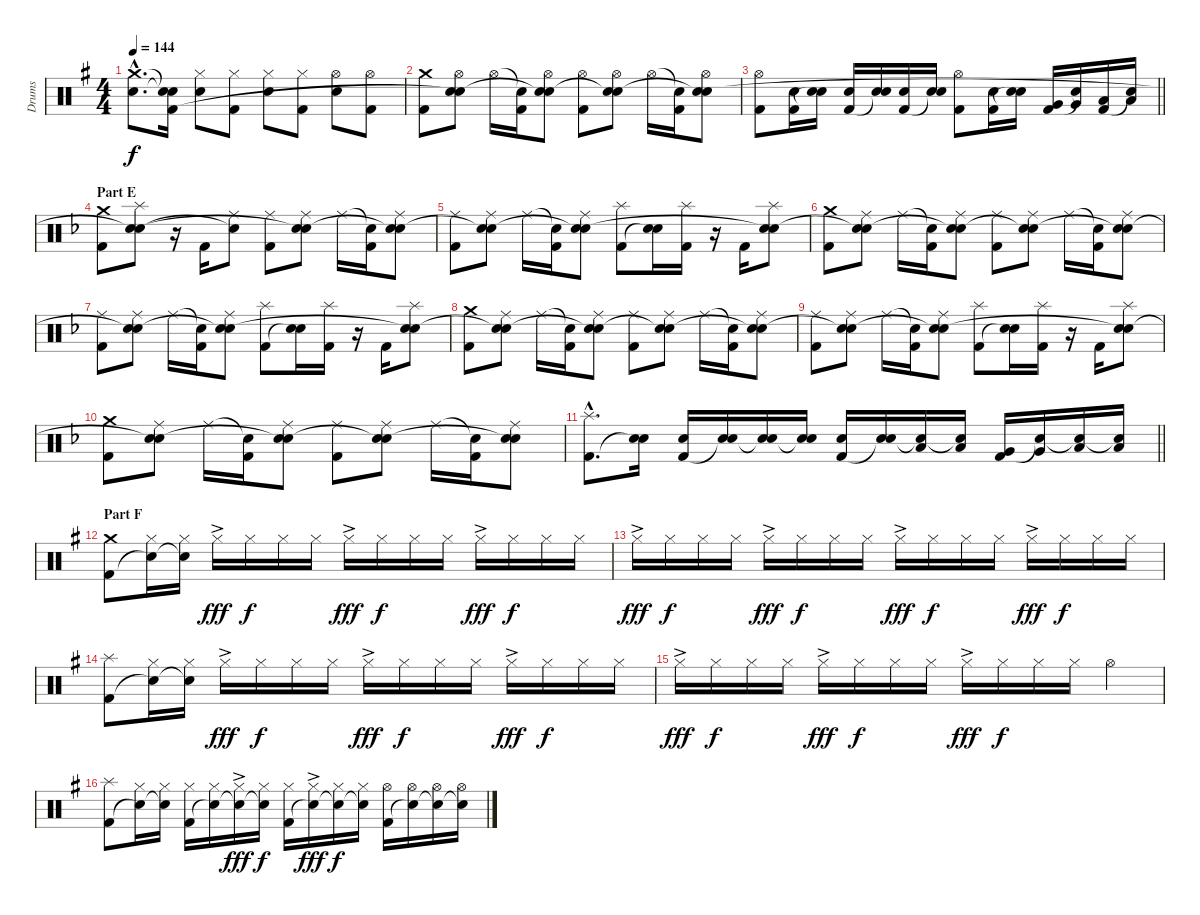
\track ("Drums" "Drums") {instrument percussion}
\staff {score}
\articulation defaults
\ts (4 4)
\tempo 144
\clef neutral
\ks g
("Crash medium (hit)"{hac} "Electric Snare (hit)"{hac}).8{d dy f} ("Snare (hit)"{t} "Snare (hit)"{t} "Kick (hit) 2").16 ("Hi-Hat (closed)" "Electric Snare (hit)").8 ("Hi-Hat (closed)" "Kick (hit) 2").8 ("Hi-Hat (closed)" "Electric Snare (hit)").8 ("Hi-Hat (closed)" "Kick (hit) 2").8 ("Hi-Hat (open)" "Electric Snare (hit)").8 ("Hi-Hat (open)" "Kick (hit) 2").8 |
("Crash medium (hit)" "Kick (hit) 2").8 ("Hi-Hat (open)" "Electric Snare (hit)" "Snare (hit)"{t}).8 "Hi-Hat (open)".16 ("Snare (hit)"{t} "Kick (hit) 2").16 ("Hi-Hat (open)" "Electric Snare (hit)" "Snare (hit)"{t}).8 ("Hi-Hat (open)" "Kick (hit) 2").8 ("Hi-Hat (open)" "Electric Snare (hit)" "Snare (hit)"{t}).8 "Hi-Hat (open)".16 ("Snare (hit)"{t} "Kick (hit) 2").16 ("Hi-Hat (open)" "Electric Snare (hit)" "Snare (hit)"{t}).8 |
\barLineRight lightlight
("Hi-Hat (open)" "Kick (hit) 2").8 ("Electric Snare (hit)" "Kick (hit) 2").16 ("Electric Snare (hit)" "Snare (hit)"{t}).16 ("Electric Snare (hit)" "Kick (hit) 2").16 ("Electric Snare (hit)" "Snare (hit)"{t}).16 ("Electric Snare (hit)" "Kick (hit) 2").16 ("Electric Snare (hit)" "Snare (hit)"{t}).16 ("Hi-Hat (open)" "Kick (hit) 2").8 ("Electric Snare (hit)" "Kick (hit) 2").16 ("Electric Snare (hit)" "Snare (hit)"{t}).16 ("Very Low Tom (hit)" "Kick (hit) 2").16 ("Very Low Tom (hit)" "Snare (hit)"{t}).16 ("Low Floor Tom (hit)" "Kick (hit) 2").16 ("Low Floor Tom (hit)" "Snare (hit)"{t}).16 |
\section ("" "Part E")
\ks f
("Crash medium (hit)" "Kick (hit) 2").8 ("Splash (hit)" "Electric Snare (hit)" "Snare (hit)"{t}).8 r.16 "Kick (hit) 2".16 ("Ride (middle)" "Snare (hit)"{t}).8 ("Ride (middle)" "Kick (hit) 2").8 ("Ride (middle)" "Electric Snare (hit)" "Snare (hit)"{t}).8 "Ride (middle)".16 ("Snare (hit)"{t} "Kick (hit) 2").16 ("Ride (middle)" "Electric Snare (hit)" "Snare (hit)"{t}).8 |
("Ride (middle)" "Kick (hit) 2").8 ("Ride (middle)" "Electric Snare (hit)" "Snare (hit)"{t}).8 "Ride (middle)".16 ("Snare (hit)"{t} "Kick (hit) 2").16 ("Ride (middle)" "Electric Snare (hit)" "Snare (hit)"{t}).8 ("Splash (hit)" "Kick (hit) 2").8 ("Electric Snare (hit)" "Snare (hit)"{t}).16 ("Splash (hit)" "Kick (hit) 2").16 r.16 "Kick (hit) 2".16 ("Splash (hit)" "Electric Snare (hit)" "Snare (hit)"{t}).8 |
("Crash medium (hit)" "Kick (hit) 2").8 ("Ride (middle)" "Electric Snare (hit)" "Snare (hit)"{t}).8 "Ride (middle)".16 ("Snare (hit)"{t} "Kick (hit) 2").16 ("Ride (middle)" "Electric Snare (hit)" "Snare (hit)"{t}).8 ("Ride (middle)" "Kick (hit) 2").8 ("Ride (middle)" "Electric Snare (hit)" "Snare (hit)"{t}).8 "Ride (middle)".16 ("Snare (hit)"{t} "Kick (hit) 2").16 ("Ride (middle)" "Electric Snare (hit)" "Snare (hit)"{t}).8 |
("Ride (middle)" "Kick (hit) 2").8 ("Ride (middle)" "Electric Snare (hit)" "Snare (hit)"{t}).8 "Ride (middle)".16 ("Snare (hit)"{t} "Kick (hit) 2").16 ("Ride (middle)" "Electric Snare (hit)" "Snare (hit)"{t}).8 ("Splash (hit)" "Kick (hit) 2").8 ("Electric Snare (hit)" "Snare (hit)"{t}).16 ("Splash (hit)" "Kick (hit) 2").16 r.16 "Kick (hit) 2".16 ("Splash (hit)" "Electric Snare (hit)" "Snare (hit)"{t}).8 |
("Crash medium (hit)" "Kick (hit) 2").8 ("Ride (middle)" "Electric Snare (hit)" "Snare (hit)"{t}).8 "Ride (middle)".16 ("Snare (hit)"{t} "Kick (hit) 2").16 ("Ride (middle)" "Electric Snare (hit)" "Snare (hit)"{t}).8 ("Ride (middle)" "Kick (hit) 2").8 ("Ride (middle)" "Electric Snare (hit)" "Snare (hit)"{t}).8 "Ride (middle)".16 ("Snare (hit)"{t} "Kick (hit) 2").16 ("Ride (middle)" "Electric Snare (hit)" "Snare (hit)"{t}).8 |
("Ride (middle)" "Kick (hit) 2").8 ("Ride (middle)" "Electric Snare (hit)" "Snare (hit)"{t}).8 "Ride (middle)".16 ("Snare (hit)"{t} "Kick (hit) 2").16 ("Ride (middle)" "Electric Snare (hit)" "Snare (hit)"{t}).8 ("Splash (hit)" "Kick (hit) 2").8 ("Electric Snare (hit)" "Snare (hit)"{t}).16 ("Splash (hit)" "Kick (hit) 2").16 r.16 "Kick (hit) 2".16 ("Splash (hit)" "Electric Snare (hit)" "Snare (hit)"{t}).8 |
("Crash medium (hit)" "Kick (hit) 2").8 ("Ride (middle)" "Electric Snare (hit)" "Snare (hit)"{t}).8 "Ride (middle)".16 ("Snare (hit)"{t} "Kick (hit) 2").16 ("Ride (middle)" "Electric Snare (hit)" "Snare (hit)"{t}).8 ("Ride (middle)" "Kick (hit) 2").8 ("Ride (middle)" "Electric Snare (hit)" "Snare (hit)"{t}).8 "Ride (middle)".16 ("Snare (hit)"{t} "Kick (hit) 2").16 ("Ride (middle)" "Electric Snare (hit)" "Snare (hit)"{t}).8 |
\barLineRight lightlight
("Splash (hit)"{hac} "Kick (hit) 2"{hac}).8{d} ("Electric Snare (hit)" "Snare (hit)"{t}).16 ("Electric Snare (hit)" "Kick (hit) 2").16 ("Electric Snare (hit)" "Snare (hit)"{t}).16 ("Electric Snare (hit)" "Snare (hit)"{t}).16 ("Electric Snare (hit)" "Snare (hit)"{t}).16 ("Electric Snare (hit)" "Kick (hit) 2").16 ("Electric Snare (hit)" "Snare (hit)"{t}).16 ("Low Tom (hit)" "Snare (hit)"{t}).16 ("Low Tom (hit)" "Snare (hit)"{t}).16 ("Very Low Tom (hit)" "Kick (hit) 2").16 ("Very Low Tom (hit)" "Snare (hit)"{t}).16 ("Low Floor Tom (hit)" "Snare (hit)"{t}).16 ("Low Floor Tom (hit)" "Snare (hit)"{t}).16 |
\section ("" "Part F")
\ks g
("Crash medium (hit)" "Kick (hit) 2").8 ("Hi-Hat (closed)" "Snare (hit)"{t}).16 ("Hi-Hat (closed)" "Snare (hit)"{t}).16 "Hi-Hat (closed)"{ac}.16{dy fff} "Hi-Hat (closed)".16{dy f} "Hi-Hat (closed)".16 "Hi-Hat (closed)".16 "Hi-Hat (closed)"{ac}.16{dy fff} "Hi-Hat (closed)".16{dy f} "Hi-Hat (closed)".16 "Hi-Hat (closed)".16 "Hi-Hat (closed)"{ac}.16{dy fff} "Hi-Hat (closed)".16{dy f} "Hi-Hat (closed)".16 "Hi-Hat (closed)".16 |
"Hi-Hat (closed)"{ac}.16{dy fff} "Hi-Hat (closed)".16{dy f} "Hi-Hat (closed)".16 "Hi-Hat (closed)".16 "Hi-Hat (closed)"{ac}.16{dy fff} "Hi-Hat (closed)".16{dy f} "Hi-Hat (closed)".16 "Hi-Hat (closed)".16 "Hi-Hat (closed)"{ac}.16{dy fff} "Hi-Hat (closed)".16{dy f} "Hi-Hat (closed)".16 "Hi-Hat (closed)".16 "Hi-Hat (closed)"{ac}.16{dy fff} "Hi-Hat (closed)".16{dy f} "Hi-Hat (closed)".16 "Hi-Hat (closed)".16 |
("Splash (hit)" "Kick (hit) 2").8 ("Hi-Hat (closed)" "Snare (hit)"{t}).16 ("Hi-Hat (closed)" "Snare (hit)"{t}).16 "Hi-Hat (closed)"{ac}.16{dy fff} "Hi-Hat (closed)".16{dy f} "Hi-Hat (closed)".16 "Hi-Hat (closed)".16 "Hi-Hat (closed)"{ac}.16{dy fff} "Hi-Hat (closed)".16{dy f} "Hi-Hat (closed)".16 "Hi-Hat (closed)".16 "Hi-Hat (closed)"{ac}.16{dy fff} "Hi-Hat (closed)".16{dy f} "Hi-Hat (closed)".16 "Hi-Hat (closed)".16 |
"Hi-Hat (closed)"{ac}.16{dy fff} "Hi-Hat (closed)".16{dy f} "Hi-Hat (closed)".16 "Hi-Hat (closed)".16 "Hi-Hat (closed)"{ac}.16{dy fff} "Hi-Hat (closed)".16{dy f} "Hi-Hat (closed)".16 "Hi-Hat (closed)".16 "Hi-Hat (closed)"{ac}.16{dy fff} "Hi-Hat (closed)".16{dy f} "Hi-Hat (closed)".16 "Hi-Hat (closed)".16 "Hi-Hat (open)".4 |
("Splash (hit)" "Kick (hit) 2").8 ("Hi-Hat (closed)" "Snare (hit)"{t}).16 ("Hi-Hat (closed)" "Snare (hit)"{t}).16 ("Hi-Hat (closed)" "Kick (hit) 2").16 ("Hi-Hat (closed)" "Snare (hit)"{t}).16 ("Hi-Hat (closed)"{ac} "Snare (hit)"{t}).16{dy fff} ("Hi-Hat (closed)" "Snare (hit)"{t}).16{dy f} ("Hi-Hat (closed)" "Kick (hit) 2").16 ("Hi-Hat (closed)"{ac} "Snare (hit)"{t}).16{dy fff} ("Hi-Hat (closed)" "Snare (hit)"{t}).16{dy f} ("Hi-Hat (closed)" "Snare (hit)"{t}).16 ("Hi-Hat (open)" "Kick (hit) 2").16 ("Hi-Hat (open)" "Snare (hit)"{t}).16 ("Hi-Hat (open)" "Snare (hit)"{t}).16 ("Hi-Hat (open)" "Snare (hit)"{t}).16
